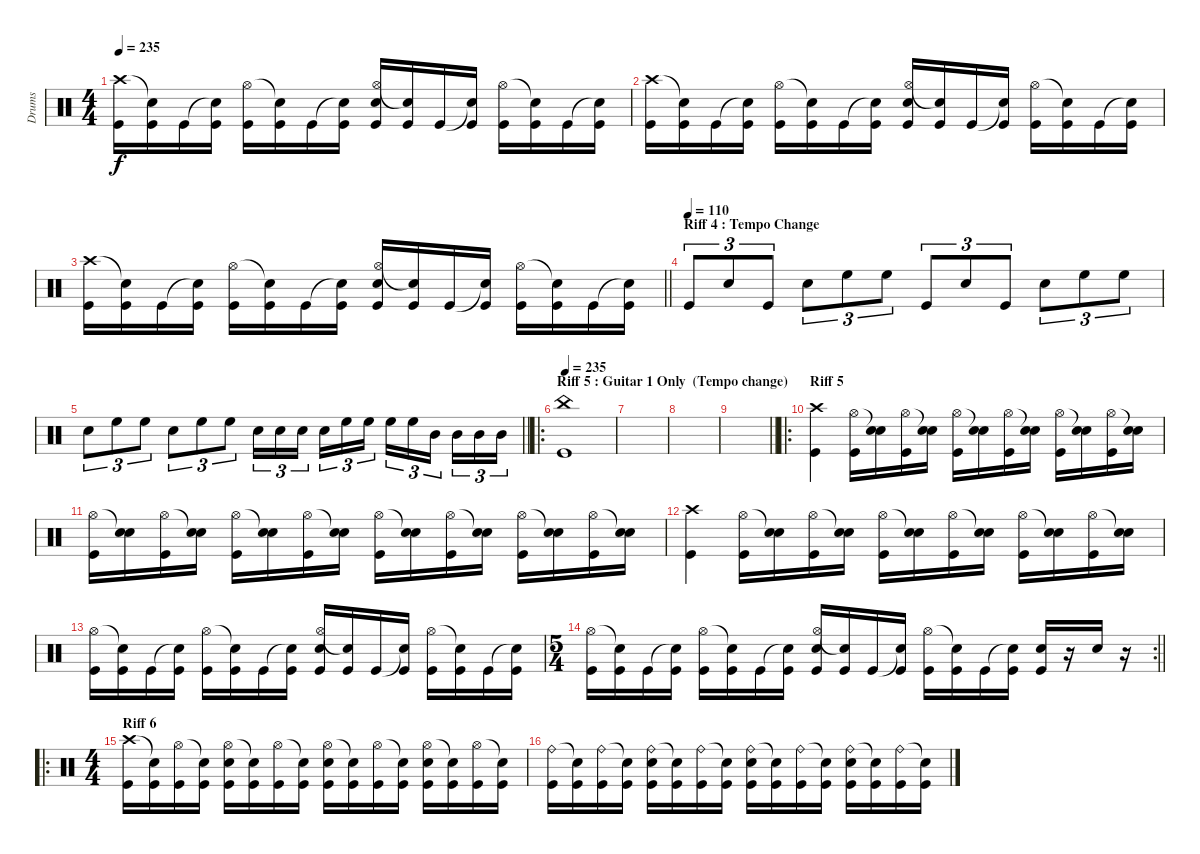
\track ("Drums" "Drums") {instrument percussion}
\staff {score}
\articulation defaults
\ts (4 4)
\tempo 235
\clef neutral
\ks c
("Crash high (hit)" "Kick (hit)").16{dy f} ("Snare (hit)"{t} "Kick (hit)").16 "Kick (hit)".16 ("Snare (hit)"{t} "Kick (hit)").16 ("Hi-Hat (open)" "Kick (hit)").16 ("Snare (hit)"{t} "Kick (hit)").16 "Kick (hit)".16 ("Snare (hit)"{t} "Kick (hit)").16 ("Hi-Hat (open)" "Electric Snare (hit)" "Kick (hit)").16 ("Snare (hit)"{t} "Kick (hit)").16 "Kick (hit)".16 ("Snare (hit)"{t} "Kick (hit)").16 ("Hi-Hat (open)" "Kick (hit)").16 ("Snare (hit)"{t} "Kick (hit)").16 "Kick (hit)".16 ("Snare (hit)"{t} "Kick (hit)").16 |
("Crash high (hit)" "Kick (hit)").16 ("Snare (hit)"{t} "Kick (hit)").16 "Kick (hit)".16 ("Snare (hit)"{t} "Kick (hit)").16 ("Hi-Hat (open)" "Kick (hit)").16 ("Snare (hit)"{t} "Kick (hit)").16 "Kick (hit)".16 ("Snare (hit)"{t} "Kick (hit)").16 ("Hi-Hat (open)" "Electric Snare (hit)" "Kick (hit)").16 ("Snare (hit)"{t} "Kick (hit)").16 "Kick (hit)".16 ("Snare (hit)"{t} "Kick (hit)").16 ("Hi-Hat (open)" "Kick (hit)").16 ("Snare (hit)"{t} "Kick (hit)").16 "Kick (hit)".16 ("Snare (hit)"{t} "Kick (hit)").16 |
\barLineRight lightlight
("Crash high (hit)" "Kick (hit)").16 ("Snare (hit)"{t} "Kick (hit)").16 "Kick (hit)".16 ("Snare (hit)"{t} "Kick (hit)").16 ("Hi-Hat (open)" "Kick (hit)").16 ("Snare (hit)"{t} "Kick (hit)").16 "Kick (hit)".16 ("Snare (hit)"{t} "Kick (hit)").16 ("Hi-Hat (open)" "Electric Snare (hit)" "Kick (hit)").16 ("Snare (hit)"{t} "Kick (hit)").16 "Kick (hit)".16 ("Snare (hit)"{t} "Kick (hit)").16 ("Hi-Hat (open)" "Kick (hit)").16 ("Snare (hit)"{t} "Kick (hit)").16 "Kick (hit)".16 ("Snare (hit)"{t} "Kick (hit)").16 |
\section ("" "Riff 4 : Tempo Change")
\tempo (110)
"Kick (hit)".8{tu (3 2)} "Electric Snare (hit)".8{tu (3 2)} "Kick (hit)".8{tu (3 2)} "Electric Snare (hit)".8{tu (3 2)} "High Floor Tom (hit)".8{tu (3 2)} "High Floor Tom (hit)".8{tu (3 2)} "Kick (hit)".8{tu (3 2)} "Electric Snare (hit)".8{tu (3 2)} "Kick (hit)".8{tu (3 2)} "Electric Snare (hit)".8{tu (3 2)} "High Floor Tom (hit)".8{tu (3 2)} "High Floor Tom (hit)".8{tu (3 2)} |
\barLineRight lightlight "Electric Snare (hit)".8{tu (3 2)} "High Floor Tom (hit)".8{tu (3 2)} "High Floor Tom (hit)".8{tu (3 2)} "Electric Snare (hit)".8{tu (3 2)} "High Floor Tom (hit)".8{tu (3 2)} "High Floor Tom (hit)".8{tu (3 2)} "Electric Snare (hit)".16{tu (3 2)} "Electric Snare (hit)".16{tu (3 2)} "Electric Snare (hit)".16{tu (3 2) beam splitsecondary} "Electric Snare (hit)".16{tu (3 2)} "High Floor Tom (hit)".16{tu (3 2)} "High Floor Tom (hit)".16{tu (3 2)} "High Floor Tom (hit)".16{tu (3 2)} "High Floor Tom (hit)".16{tu (3 2)} "Mid Tom (hit)".16{tu (3 2) beam splitsecondary} "Mid Tom (hit)".16{tu (3 2)} "Mid Tom (hit)".16{tu (3 2)} "Mid Tom (hit)".16{tu (3 2)}
|
\ro
\section ("" "Riff 5 : Guitar 1 Only  (Tempo change)")
\tempo 235
("China (hit)" "Kick (hit)").1 |
|
|
\barLineRight lightlight
|
\ro
\section ("" "Riff 5")
("Crash high (hit)" "Kick (hit)").4 ("Hi-Hat (open)" "Kick (hit)").16 ("Snare (hit)"{t} "Electric Snare (hit)").16 ("Hi-Hat (open)" "Kick (hit)").16 ("Snare (hit)"{t} "Electric Snare (hit)").16 ("Hi-Hat (open)" "Kick (hit)").16 ("Snare (hit)"{t} "Electric Snare (hit)").16 ("Hi-Hat (open)" "Kick (hit)").16 ("Snare (hit)"{t} "Electric Snare (hit)").16 ("Hi-Hat (open)" "Kick (hit)").16 ("Snare (hit)"{t} "Electric Snare (hit)").16 ("Hi-Hat (open)" "Kick (hit)").16 ("Snare (hit)"{t} "Electric Snare (hit)").16 |
("Hi-Hat (open)" "Kick (hit)").16 ("Snare (hit)"{t} "Electric Snare (hit)").16 ("Hi-Hat (open)" "Kick (hit)").16 ("Snare (hit)"{t} "Electric Snare (hit)").16 ("Hi-Hat (open)" "Kick (hit)").16 ("Snare (hit)"{t} "Electric Snare (hit)").16 ("Hi-Hat (open)" "Kick (hit)").16 ("Snare (hit)"{t} "Electric Snare (hit)").16 ("Hi-Hat (open)" "Kick (hit)").16 ("Snare (hit)"{t} "Electric Snare (hit)").16 ("Hi-Hat (open)" "Kick (hit)").16 ("Snare (hit)"{t} "Electric Snare (hit)").16 ("Hi-Hat (open)" "Kick (hit)").16 ("Snare (hit)"{t} "Electric Snare (hit)").16 ("Hi-Hat (open)" "Kick (hit)").16 ("Snare (hit)"{t} "Electric Snare (hit)").16 |
("Crash high (hit)" "Kick (hit)").4 ("Hi-Hat (open)" "Kick (hit)").16 ("Snare (hit)"{t} "Electric Snare (hit)").16 ("Hi-Hat (open)" "Kick (hit)").16 ("Snare (hit)"{t} "Electric Snare (hit)").16 ("Hi-Hat (open)" "Kick (hit)").16 ("Snare (hit)"{t} "Electric Snare (hit)").16 ("Hi-Hat (open)" "Kick (hit)").16 ("Snare (hit)"{t} "Electric Snare (hit)").16 ("Hi-Hat (open)" "Kick (hit)").16 ("Snare (hit)"{t} "Electric Snare (hit)").16 ("Hi-Hat (open)" "Kick (hit)").16 ("Snare (hit)"{t} "Electric Snare (hit)").16 |
("Hi-Hat (open)" "Kick (hit)").16 ("Snare (hit)"{t} "Kick (hit)").16 "Kick (hit)".16 ("Snare (hit)"{t} "Kick (hit)").16 ("Hi-Hat (open)" "Kick (hit)").16 ("Snare (hit)"{t} "Kick (hit)").16 "Kick (hit)".16 ("Snare (hit)"{t} "Kick (hit)").16 ("Hi-Hat (open)" "Electric Snare (hit)" "Kick (hit)").16 ("Snare (hit)"{t} "Kick (hit)").16 "Kick (hit)".16 ("Snare (hit)"{t} "Kick (hit)").16 ("Hi-Hat (open)" "Kick (hit)").16 ("Snare (hit)"{t} "Kick (hit)").16 "Kick (hit)".16 ("Snare (hit)"{t} "Kick (hit)").16 |
\rc 2
\ts (5 4)
\barLineRight lightlight
("Hi-Hat (open)" "Kick (hit)").16 ("Snare (hit)"{t} "Kick (hit)").16 "Kick (hit)".16 ("Snare (hit)"{t} "Kick (hit)").16 ("Hi-Hat (open)" "Kick (hit)").16 ("Snare (hit)"{t} "Kick (hit)").16 "Kick (hit)".16 ("Snare (hit)"{t} "Kick (hit)").16 ("Hi-Hat (open)" "Electric Snare (hit)" "Kick (hit)").16 ("Snare (hit)"{t} "Kick (hit)").16 "Kick (hit)".16 ("Snare (hit)"{t} "Kick (hit)").16 ("Hi-Hat (open)" "Kick (hit)").16 ("Snare (hit)"{t} "Kick (hit)").16 "Kick (hit)".16 ("Snare (hit)"{t} "Kick (hit)").16 ("Electric Snare (hit)" "Kick (hit)").16 r.16 "Electric Snare (hit)".16 r.16 |
\ro
\ts (4 4)
\section ("" "Riff 6")
("Crash high (hit)" "Kick (hit)").16 ("Snare (hit)"{t} "Kick (hit)").16 ("Hi-Hat (open)" "Kick (hit)").16 ("Snare (hit)"{t} "Kick (hit)").16 ("Hi-Hat (open)" "Electric Snare (hit)" "Kick (hit)").16 ("Snare (hit)"{t} "Kick (hit)").16 ("Hi-Hat (open)" "Kick (hit)").16 ("Snare (hit)"{t} "Kick (hit)").16 ("Hi-Hat (open)" "Electric Snare (hit)" "Kick (hit)").16 ("Snare (hit)"{t} "Kick (hit)").16 ("Hi-Hat (open)" "Kick (hit)").16 ("Snare (hit)"{t} "Kick (hit)").16 ("Hi-Hat (open)" "Electric Snare (hit)" "Kick (hit)").16 ("Snare (hit)"{t} "Kick (hit)").16 ("Hi-Hat (open)" "Kick (hit)").16 ("Snare (hit)"{t} "Kick (hit)").16 |
("Ride (bell)" "Kick (hit)").16 ("Snare (hit)"{t} "Kick (hit)").16 ("Ride (bell)" "Kick (hit)").16 ("Snare (hit)"{t} "Kick (hit)").16 ("Ride (bell)" "Electric Snare (hit)" "Kick (hit)").16 ("Snare (hit)"{t} "Kick (hit)").16 ("Ride (bell)" "Kick (hit)").16 ("Snare (hit)"{t} "Kick (hit)").16 ("Ride (bell)" "Electric Snare (hit)" "Kick (hit)").16 ("Snare (hit)"{t} "Kick (hit)").16 ("Ride (bell)" "Kick (hit)").16 ("Snare (hit)"{t} "Kick (hit)").16 ("Ride (bell)" "Electric Snare (hit)" "Kick (hit)").16 ("Snare (hit)"{t} "Kick (hit)").16 ("Ride (bell)" "Kick (hit)").16 ("Snare (hit)"{t} "Kick (hit)").16
